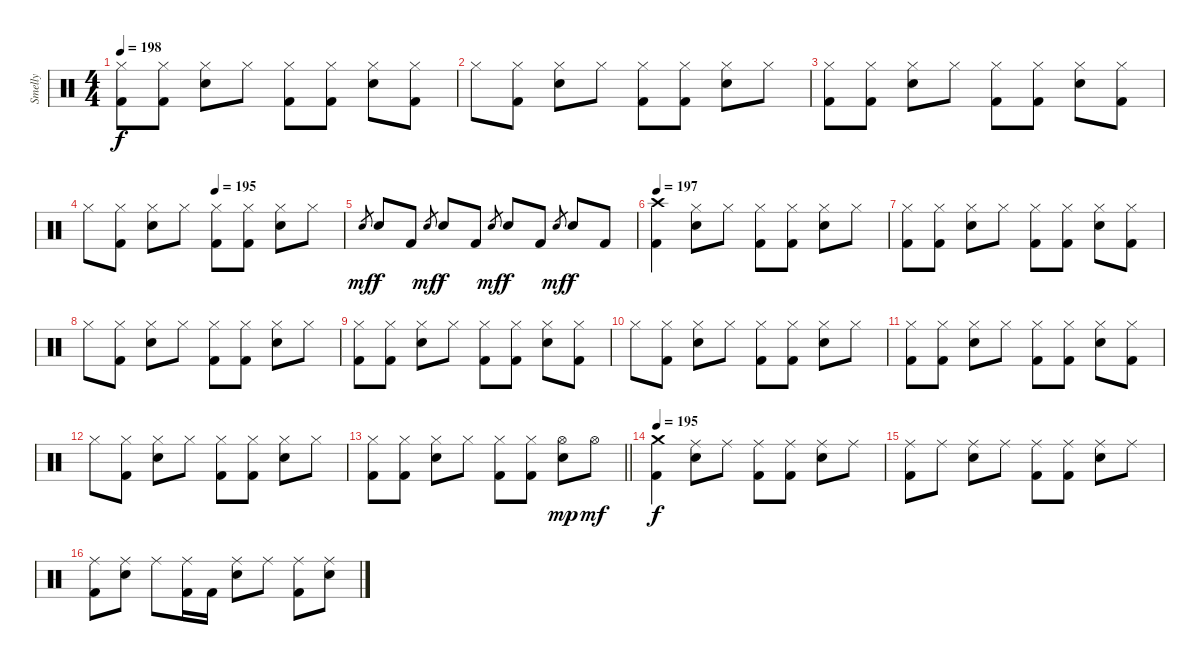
\track ("Smelly" "Smelly") {instrument percussion}
\staff {score}
\articulation defaults
\ts (4 4)
\tempo 198
\clef neutral
\ks c
("Hi-Hat (closed)" "Kick (hit) 2").8{dy f} ("Hi-Hat (closed)" "Kick (hit) 2").8 ("Hi-Hat (closed)" "Electric Snare (hit)").8 "Hi-Hat (closed)".8 ("Hi-Hat (closed)" "Kick (hit) 2").8 ("Hi-Hat (closed)" "Kick (hit) 2").8 ("Hi-Hat (closed)" "Electric Snare (hit)").8 ("Hi-Hat (closed)" "Kick (hit) 2").8 |
"Hi-Hat (closed)".8 ("Hi-Hat (closed)" "Kick (hit) 2").8 ("Hi-Hat (closed)" "Electric Snare (hit)").8 "Hi-Hat (closed)".8 ("Hi-Hat (closed)" "Kick (hit) 2").8 ("Hi-Hat (closed)" "Kick (hit) 2").8 ("Hi-Hat (closed)" "Electric Snare (hit)").8 "Hi-Hat (closed)".8 |
("Hi-Hat (closed)" "Kick (hit) 2").8 ("Hi-Hat (closed)" "Kick (hit) 2").8 ("Hi-Hat (closed)" "Electric Snare (hit)").8 "Hi-Hat (closed)".8 ("Hi-Hat (closed)" "Kick (hit) 2").8 ("Hi-Hat (closed)" "Kick (hit) 2").8 ("Hi-Hat (closed)" "Electric Snare (hit)").8 ("Hi-Hat (closed)" "Kick (hit) 2").8 |
\tempo (195 0.5)
"Hi-Hat (closed)".8 ("Hi-Hat (closed)" "Kick (hit) 2").8 ("Hi-Hat (closed)" "Electric Snare (hit)").8 "Hi-Hat (closed)".8 ("Hi-Hat (closed)" "Kick (hit) 2").8 ("Hi-Hat (closed)" "Kick (hit) 2").8 ("Hi-Hat (closed)" "Electric Snare (hit)").8 "Hi-Hat (closed)".8 |
"Electric Snare (hit)".8{gr dy mf} "Electric Snare (hit)".8{dy f} "Kick (hit) 2".8 "Electric Snare (hit)".8{gr dy mf} "Electric Snare (hit)".8{dy f} "Kick (hit) 2".8 "Electric Snare (hit)".8{gr dy mf} "Electric Snare (hit)".8{dy f} "Kick (hit) 2".8 "Electric Snare (hit)".8{gr dy mf} "Electric Snare (hit)".8{dy f} "Kick (hit) 2".8 |
\tempo 197
("Crash high (hit)" "Kick (hit) 2").4 ("Hi-Hat (closed)" "Electric Snare (hit)").8 "Hi-Hat (closed)".8 ("Hi-Hat (closed)" "Kick (hit) 2").8 ("Hi-Hat (closed)" "Kick (hit) 2").8 ("Hi-Hat (closed)" "Electric Snare (hit)").8 "Hi-Hat (closed)".8 |
("Hi-Hat (closed)" "Kick (hit) 2").8 ("Hi-Hat (closed)" "Kick (hit) 2").8 ("Hi-Hat (closed)" "Electric Snare (hit)").8 "Hi-Hat (closed)".8 ("Hi-Hat (closed)" "Kick (hit) 2").8 ("Hi-Hat (closed)" "Kick (hit) 2").8 ("Hi-Hat (closed)" "Electric Snare (hit)").8 ("Hi-Hat (closed)" "Kick (hit) 2").8 |
"Hi-Hat (closed)".8 ("Hi-Hat (closed)" "Kick (hit) 2").8 ("Hi-Hat (closed)" "Electric Snare (hit)").8 "Hi-Hat (closed)".8 ("Hi-Hat (closed)" "Kick (hit) 2").8 ("Hi-Hat (closed)" "Kick (hit) 2").8 ("Hi-Hat (closed)" "Electric Snare (hit)").8 "Hi-Hat (closed)".8 |
("Hi-Hat (closed)" "Kick (hit) 2").8 ("Hi-Hat (closed)" "Kick (hit) 2").8 ("Hi-Hat (closed)" "Electric Snare (hit)").8 "Hi-Hat (closed)".8 ("Hi-Hat (closed)" "Kick (hit) 2").8 ("Hi-Hat (closed)" "Kick (hit) 2").8 ("Hi-Hat (closed)" "Electric Snare (hit)").8 ("Hi-Hat (closed)" "Kick (hit) 2").8 |
"Hi-Hat (closed)".8 ("Hi-Hat (closed)" "Kick (hit) 2").8 ("Hi-Hat (closed)" "Electric Snare (hit)").8 "Hi-Hat (closed)".8 ("Hi-Hat (closed)" "Kick (hit) 2").8 ("Hi-Hat (closed)" "Kick (hit) 2").8 ("Hi-Hat (closed)" "Electric Snare (hit)").8 "Hi-Hat (closed)".8 |
("Hi-Hat (closed)" "Kick (hit) 2").8 ("Hi-Hat (closed)" "Kick (hit) 2").8 ("Hi-Hat (closed)" "Electric Snare (hit)").8 "Hi-Hat (closed)".8 ("Hi-Hat (closed)" "Kick (hit) 2").8 ("Hi-Hat (closed)" "Kick (hit) 2").8 ("Hi-Hat (closed)" "Electric Snare (hit)").8 ("Hi-Hat (closed)" "Kick (hit) 2").8 |
"Hi-Hat (closed)".8 ("Hi-Hat (closed)" "Kick (hit) 2").8 ("Hi-Hat (closed)" "Electric Snare (hit)").8 "Hi-Hat (closed)".8 ("Hi-Hat (closed)" "Kick (hit) 2").8 ("Hi-Hat (closed)" "Kick (hit) 2").8 ("Hi-Hat (closed)" "Electric Snare (hit)").8 "Hi-Hat (closed)".8 |
\barLineRight lightlight
("Hi-Hat (closed)" "Kick (hit) 2").8 ("Hi-Hat (closed)" "Kick (hit) 2").8 ("Hi-Hat (closed)" "Electric Snare (hit)").8 "Hi-Hat (closed)".8 ("Hi-Hat (closed)" "Kick (hit) 2").8 ("Hi-Hat (closed)" "Kick (hit) 2").8 ("Hi-Hat (open)" "Electric Snare (hit)").8{dy mp} "Hi-Hat (open)".8{dy mf} |
\tempo 195
("Crash medium (hit)" "Kick (hit) 2").4{dy f} ("Ride (middle)" "Electric Snare (hit)").8 "Ride (middle)".8 ("Ride (middle)" "Kick (hit) 2").8 ("Ride (middle)" "Kick (hit) 2").8 ("Ride (middle)" "Electric Snare (hit)").8 "Ride (middle)".8 |
("Ride (middle)" "Kick (hit) 2").8 "Ride (middle)".8 ("Ride (middle)" "Electric Snare (hit)").8 "Ride (middle)".8 ("Ride (middle)" "Kick (hit) 2").8 ("Ride (middle)" "Kick (hit) 2").8 ("Ride (middle)" "Electric Snare (hit)").8 "Ride (middle)".8 |
("Ride (middle)" "Kick (hit) 2").8 ("Ride (middle)" "Electric Snare (hit)").8 "Ride (middle)".8 ("Ride (middle)" "Kick (hit) 2").16 "Kick (hit) 2".16 ("Ride (middle)" "Electric Snare (hit)").8 "Ride (middle)".8 ("Ride (middle)" "Kick (hit) 2").8 ("Ride (middle)" "Electric Snare (hit)").8
